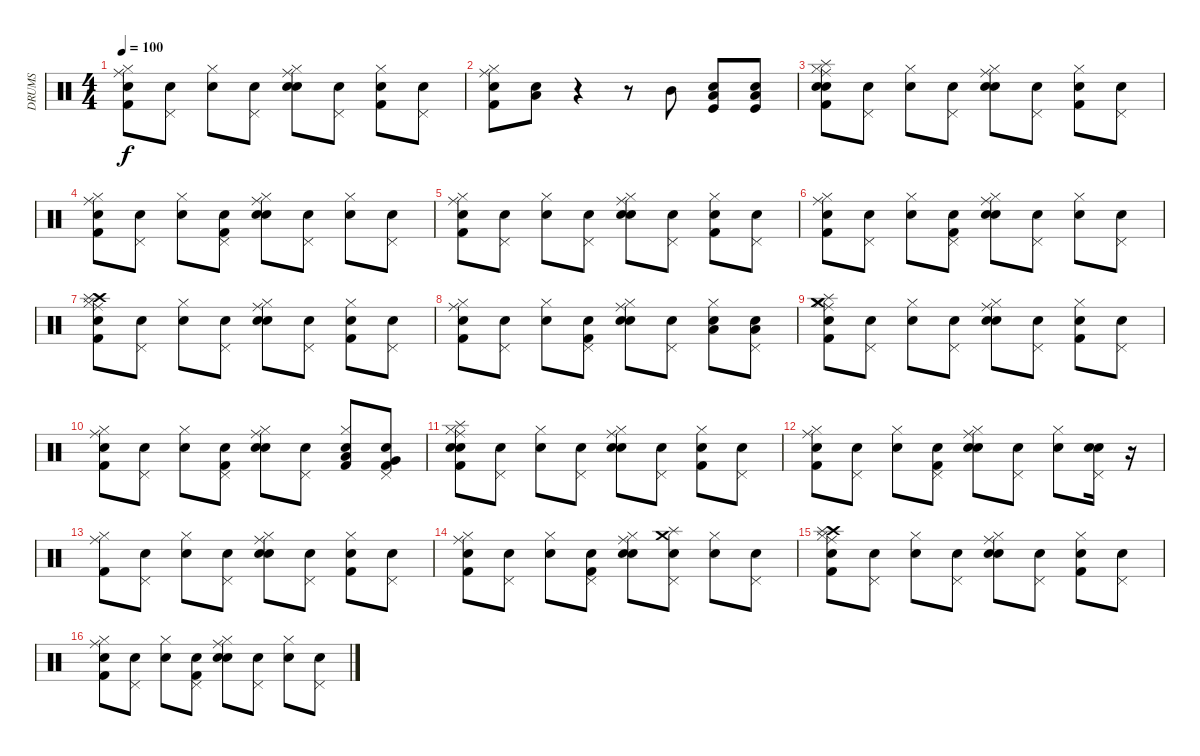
\track ("DRUMS" "DRUMS") {instrument percussion}
\staff {score}
\articulation defaults
\ts (4 4)
\tempo 100
\clef neutral
\ks c
("Snare (hit)" "Kick (hit) 2" "Ride (middle)" "Hi-Hat (closed)").8{dy f} ("Snare (hit)" "Pedal Hi-Hat (hit)").8 ("Snare (hit)" "Hi-Hat (closed)").8 ("Snare (hit)" "Pedal Hi-Hat (hit)").8 ("Snare (hit)" "Ride (middle)" "Hi-Hat (closed)" "Snare (hit) 2").8 ("Snare (hit)" "Pedal Hi-Hat (hit)").8 ("Snare (hit)" "Hi-Hat (closed)" "Kick (hit) 2").8 ("Snare (hit)" "Pedal Hi-Hat (hit)").8 |
("Snare (hit)" "Ride (middle)" "Hi-Hat (closed)" "Kick (hit) 2").8 ("Snare (hit)" "Low Tom (hit)").8 r.4 r.8 "Mid Tom (hit)".8 ("Snare (hit)" "Kick (hit)" "Low Tom (hit)").8 ("Snare (hit)" "Kick (hit)" "Low Tom (hit)").8 |
("Snare (hit)" "Ride (middle)" "Hi-Hat (closed)" "Kick (hit) 2" "Snare (hit) 2" "Splash (hit)").8 ("Snare (hit)" "Pedal Hi-Hat (hit)").8 ("Snare (hit)" "Hi-Hat (closed)").8 ("Snare (hit)" "Pedal Hi-Hat (hit)").8 ("Snare (hit)" "Ride (middle)" "Hi-Hat (closed)" "Snare (hit) 2").8 ("Snare (hit)" "Pedal Hi-Hat (hit)").8 ("Snare (hit)" "Hi-Hat (closed)" "Kick (hit) 2").8 ("Snare (hit)" "Pedal Hi-Hat (hit)").8 |
("Snare (hit)" "Ride (middle)" "Hi-Hat (closed)" "Kick (hit) 2").8 ("Snare (hit)" "Pedal Hi-Hat (hit)").8 ("Snare (hit)" "Hi-Hat (closed)").8 ("Snare (hit)" "Pedal Hi-Hat (hit)" "Kick (hit) 2").8 ("Snare (hit)" "Ride (middle)" "Hi-Hat (closed)" "Snare (hit) 2").8 ("Snare (hit)" "Pedal Hi-Hat (hit)").8 ("Snare (hit)" "Hi-Hat (closed)").8 ("Snare (hit)" "Pedal Hi-Hat (hit)").8 |
("Snare (hit)" "Kick (hit) 2" "Ride (middle)" "Hi-Hat (closed)").8 ("Snare (hit)" "Pedal Hi-Hat (hit)").8 ("Snare (hit)" "Hi-Hat (closed)").8 ("Snare (hit)" "Pedal Hi-Hat (hit)").8 ("Snare (hit)" "Ride (middle)" "Hi-Hat (closed)" "Snare (hit) 2").8 ("Snare (hit)" "Pedal Hi-Hat (hit)").8 ("Snare (hit)" "Hi-Hat (closed)" "Kick (hit) 2").8 ("Snare (hit)" "Pedal Hi-Hat (hit)").8 |
("Snare (hit)" "Ride (middle)" "Hi-Hat (closed)" "Kick (hit) 2").8 ("Snare (hit)" "Pedal Hi-Hat (hit)").8 ("Snare (hit)" "Hi-Hat (closed)").8 ("Snare (hit)" "Pedal Hi-Hat (hit)" "Kick (hit) 2").8 ("Snare (hit)" "Ride (middle)" "Hi-Hat (closed)" "Snare (hit) 2").8 ("Snare (hit)" "Pedal Hi-Hat (hit)").8 ("Snare (hit)" "Hi-Hat (closed)").8 ("Snare (hit)" "Pedal Hi-Hat (hit)").8 |
("Snare (hit)" "Hi-Hat (closed)" "Ride (middle)" "Kick (hit) 2" "Crash high (hit)" "Splash (hit)").8 ("Snare (hit)" "Pedal Hi-Hat (hit)").8 ("Snare (hit)" "Hi-Hat (closed)").8 ("Snare (hit)" "Pedal Hi-Hat (hit)").8 ("Snare (hit)" "Ride (middle)" "Hi-Hat (closed)" "Snare (hit) 2").8 ("Snare (hit)" "Pedal Hi-Hat (hit)").8 ("Snare (hit)" "Hi-Hat (closed)" "Kick (hit) 2").8 ("Snare (hit)" "Pedal Hi-Hat (hit)").8 |
("Snare (hit)" "Ride (middle)" "Hi-Hat (closed)" "Kick (hit) 2").8 ("Snare (hit)" "Pedal Hi-Hat (hit)").8 ("Snare (hit)" "Hi-Hat (closed)").8 ("Snare (hit)" "Pedal Hi-Hat (hit)" "Kick (hit) 2").8 ("Snare (hit)" "Ride (middle)" "Hi-Hat (closed)" "Snare (hit) 2").8 ("Snare (hit)" "Pedal Hi-Hat (hit)").8 ("Snare (hit)" "Low Tom (hit)" "Hi-Hat (closed)").8 ("Snare (hit)" "Low Tom (hit)" "Pedal Hi-Hat (hit)").8 |
("Snare (hit)" "Crash medium (hit)" "Splash (hit)" "Kick (hit) 2" "Ride (middle)" "Hi-Hat (closed)").8 ("Snare (hit)" "Pedal Hi-Hat (hit)").8 ("Snare (hit)" "Hi-Hat (closed)").8 ("Snare (hit)" "Pedal Hi-Hat (hit)").8 ("Snare (hit)" "Ride (middle)" "Hi-Hat (closed)" "Snare (hit) 2").8 ("Snare (hit)" "Pedal Hi-Hat (hit)").8 ("Snare (hit)" "Hi-Hat (closed)" "Kick (hit) 2").8 ("Snare (hit)" "Pedal Hi-Hat (hit)").8 |
("Snare (hit)" "Ride (middle)" "Hi-Hat (closed)" "Kick (hit) 2").8 ("Snare (hit)" "Pedal Hi-Hat (hit)").8 ("Snare (hit)" "Hi-Hat (closed)").8 ("Snare (hit)" "Pedal Hi-Hat (hit)" "Kick (hit) 2").8 ("Snare (hit)" "Ride (middle)" "Hi-Hat (closed)" "Snare (hit) 2").8 ("Snare (hit)" "Pedal Hi-Hat (hit)").8 ("Snare (hit)" "Kick (hit) 2" "Low Tom (hit)" "Hi-Hat (closed)").8 ("Snare (hit)" "Very Low Tom (hit)" "Kick (hit) 2" "Pedal Hi-Hat (hit)").8 |
("Snare (hit)" "Ride (middle)" "Hi-Hat (closed)" "Kick (hit) 2" "Snare (hit) 2" "Splash (hit)").8 ("Snare (hit)" "Pedal Hi-Hat (hit)").8 ("Snare (hit)" "Hi-Hat (closed)").8 ("Snare (hit)" "Pedal Hi-Hat (hit)").8 ("Snare (hit)" "Ride (middle)" "Hi-Hat (closed)" "Snare (hit) 2").8 ("Snare (hit)" "Pedal Hi-Hat (hit)").8 ("Snare (hit)" "Hi-Hat (closed)" "Kick (hit) 2").8 ("Snare (hit)" "Pedal Hi-Hat (hit)").8 |
("Snare (hit)" "Ride (middle)" "Hi-Hat (closed)" "Kick (hit) 2").8 ("Snare (hit)" "Pedal Hi-Hat (hit)").8 ("Snare (hit)" "Hi-Hat (closed)").8 ("Snare (hit)" "Pedal Hi-Hat (hit)" "Kick (hit) 2").8 ("Snare (hit)" "Ride (middle)" "Hi-Hat (closed)" "Snare (hit) 2").8 ("Snare (hit)" "Pedal Hi-Hat (hit)").8 ("Snare (hit)" "Hi-Hat (closed)").8 ("Snare (hit)" "Snare (hit) 2" "Pedal Hi-Hat (hit)").16 r.16 |
("Kick (hit) 2" "Ride (middle)" "Hi-Hat (closed)").8 ("Snare (hit)" "Pedal Hi-Hat (hit)").8 ("Snare (hit)" "Hi-Hat (closed)").8 ("Snare (hit)" "Pedal Hi-Hat (hit)").8 ("Snare (hit)" "Ride (middle)" "Hi-Hat (closed)" "Snare (hit) 2").8 ("Snare (hit)" "Pedal Hi-Hat (hit)").8 ("Snare (hit)" "Hi-Hat (closed)" "Kick (hit) 2").8 ("Snare (hit)" "Pedal Hi-Hat (hit)").8 |
("Snare (hit)" "Ride (middle)" "Hi-Hat (closed)" "Kick (hit) 2").8 ("Snare (hit)" "Pedal Hi-Hat (hit)").8 ("Snare (hit)" "Hi-Hat (closed)").8 ("Snare (hit)" "Pedal Hi-Hat (hit)" "Kick (hit) 2").8 ("Snare (hit)" "Ride (middle)" "Hi-Hat (closed)" "Snare (hit) 2").8 ("Snare (hit)" "Splash (hit)" "Crash medium (hit)" "Pedal Hi-Hat (hit)").8 ("Snare (hit)" "Hi-Hat (closed)").8 ("Snare (hit)" "Pedal Hi-Hat (hit)").8 |
("Snare (hit)" "Hi-Hat (closed)" "Ride (middle)" "Kick (hit) 2" "Crash high (hit)" "Splash (hit)").8 ("Snare (hit)" "Pedal Hi-Hat (hit)").8 ("Snare (hit)" "Hi-Hat (closed)").8 ("Snare (hit)" "Pedal Hi-Hat (hit)").8 ("Snare (hit)" "Ride (middle)" "Hi-Hat (closed)" "Snare (hit) 2").8 ("Snare (hit)" "Pedal Hi-Hat (hit)").8 ("Snare (hit)" "Hi-Hat (closed)" "Kick (hit) 2").8 ("Snare (hit)" "Pedal Hi-Hat (hit)").8 |
("Snare (hit)" "Ride (middle)" "Hi-Hat (closed)" "Kick (hit) 2").8 ("Snare (hit)" "Pedal Hi-Hat (hit)").8 ("Snare (hit)" "Hi-Hat (closed)").8 ("Snare (hit)" "Pedal Hi-Hat (hit)" "Kick (hit) 2").8 ("Snare (hit)" "Ride (middle)" "Hi-Hat (closed)" "Snare (hit) 2").8 ("Snare (hit)" "Pedal Hi-Hat (hit)").8 ("Snare (hit)" "Hi-Hat (closed)").8 ("Snare (hit)" "Pedal Hi-Hat (hit)").8
